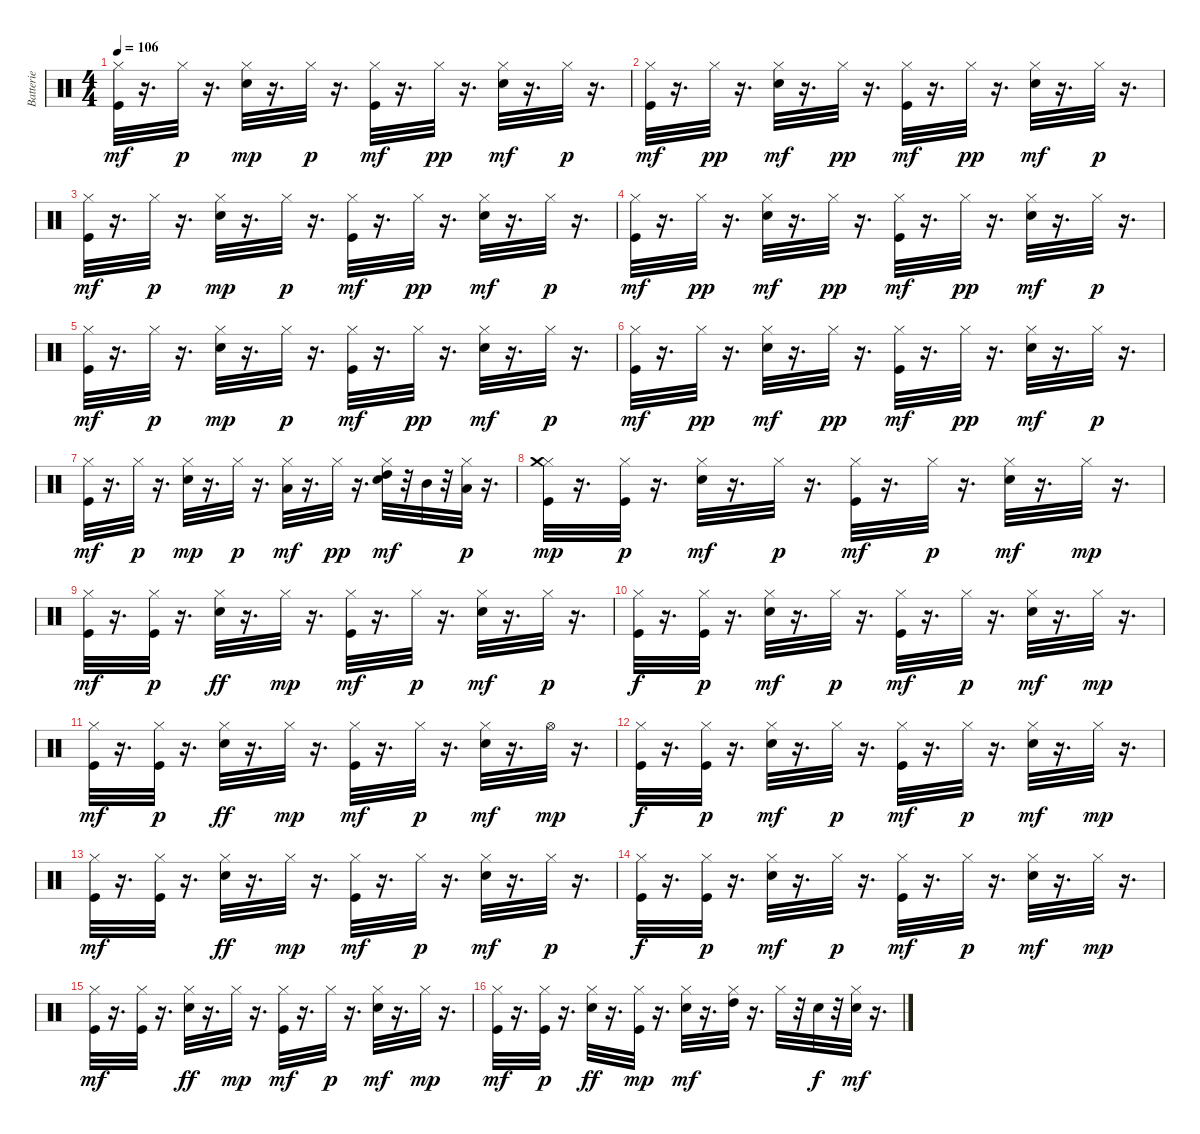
\track ("Batterie" "Batterie") {instrument percussion}
\staff {score}
\articulation defaults
\ts (4 4)
\tempo 106
\clef neutral
\ks c
("Hi-Hat (closed)" "Kick (hit)").32{dy mf} r.16{d} "Hi-Hat (closed)".32{dy p} r.16{d} ("Hi-Hat (closed)" "Electric Snare (hit)").32{dy mp} r.16{d} "Hi-Hat (closed)".32{dy p} r.16{d} ("Hi-Hat (closed)" "Kick (hit)").32{dy mf} r.16{d} "Hi-Hat (closed)".32{dy pp} r.16{d} ("Hi-Hat (closed)" "Electric Snare (hit)").32{dy mf} r.16{d} "Hi-Hat (closed)".32{dy p} r.16{d} |
("Hi-Hat (closed)" "Kick (hit)").32{dy mf} r.16{d} "Hi-Hat (closed)".32{dy pp} r.16{d} ("Hi-Hat (closed)" "Electric Snare (hit)").32{dy mf} r.16{d} "Hi-Hat (closed)".32{dy pp} r.16{d} ("Hi-Hat (closed)" "Kick (hit)").32{dy mf} r.16{d} "Hi-Hat (closed)".32{dy pp} r.16{d} ("Hi-Hat (closed)" "Electric Snare (hit)").32{dy mf} r.16{d} "Hi-Hat (closed)".32{dy p} r.16{d} |
("Hi-Hat (closed)" "Kick (hit)").32{dy mf} r.16{d} "Hi-Hat (closed)".32{dy p} r.16{d} ("Hi-Hat (closed)" "Electric Snare (hit)").32{dy mp} r.16{d} "Hi-Hat (closed)".32{dy p} r.16{d} ("Hi-Hat (closed)" "Kick (hit)").32{dy mf} r.16{d} "Hi-Hat (closed)".32{dy pp} r.16{d} ("Hi-Hat (closed)" "Electric Snare (hit)").32{dy mf} r.16{d} "Hi-Hat (closed)".32{dy p} r.16{d} |
("Hi-Hat (closed)" "Kick (hit)").32{dy mf} r.16{d} "Hi-Hat (closed)".32{dy pp} r.16{d} ("Hi-Hat (closed)" "Electric Snare (hit)").32{dy mf} r.16{d} "Hi-Hat (closed)".32{dy pp} r.16{d} ("Hi-Hat (closed)" "Kick (hit)").32{dy mf} r.16{d} "Hi-Hat (closed)".32{dy pp} r.16{d} ("Hi-Hat (closed)" "Electric Snare (hit)").32{dy mf} r.16{d} "Hi-Hat (closed)".32{dy p} r.16{d} |
("Hi-Hat (closed)" "Kick (hit)").32{dy mf} r.16{d} "Hi-Hat (closed)".32{dy p} r.16{d} ("Hi-Hat (closed)" "Electric Snare (hit)").32{dy mp} r.16{d} "Hi-Hat (closed)".32{dy p} r.16{d} ("Hi-Hat (closed)" "Kick (hit)").32{dy mf} r.16{d} "Hi-Hat (closed)".32{dy pp} r.16{d} ("Hi-Hat (closed)" "Electric Snare (hit)").32{dy mf} r.16{d} "Hi-Hat (closed)".32{dy p} r.16{d} |
("Hi-Hat (closed)" "Kick (hit)").32{dy mf} r.16{d} "Hi-Hat (closed)".32{dy pp} r.16{d} ("Hi-Hat (closed)" "Electric Snare (hit)").32{dy mf} r.16{d} "Hi-Hat (closed)".32{dy pp} r.16{d} ("Hi-Hat (closed)" "Kick (hit)").32{dy mf} r.16{d} "Hi-Hat (closed)".32{dy pp} r.16{d} ("Hi-Hat (closed)" "Electric Snare (hit)").32{dy mf} r.16{d} "Hi-Hat (closed)".32{dy p} r.16{d} |
("Hi-Hat (closed)" "Kick (hit)").32{dy mf} r.16{d} "Hi-Hat (closed)".32{dy p} r.16{d} ("Hi-Hat (closed)" "Electric Snare (hit)").32{dy mp} r.16{d} "Hi-Hat (closed)".32{dy p} r.16{d} ("Hi-Hat (closed)" "Low Tom (hit)").32{dy mf} r.16{d} "Hi-Hat (closed)".32{dy pp} r.16{d} ("Electric Snare (hit)" "High Tom (hit)" "Hi-Hat (closed)").32{dy mf} r.32 "Mid Tom (hit)".32 r.32 ("Low Tom (hit)" "Hi-Hat (closed)").32{dy p} r.16{d} |
("Hi-Hat (closed)" "Crash medium (hit)" "Kick (hit)").32{dy mp} r.16{d} ("Hi-Hat (closed)" "Kick (hit)").32{dy p} r.16{d} ("Hi-Hat (closed)" "Electric Snare (hit)").32{dy mf} r.16{d} "Hi-Hat (closed)".32{dy p} r.16{d} ("Hi-Hat (closed)" "Kick (hit)").32{dy mf} r.16{d} "Hi-Hat (closed)".32{dy p} r.16{d} ("Hi-Hat (closed)" "Electric Snare (hit)").32{dy mf} r.16{d} "Hi-Hat (closed)".32{dy mp} r.16{d} |
("Hi-Hat (closed)" "Kick (hit)").32{dy mf} r.16{d} ("Kick (hit)" "Hi-Hat (closed)").32{dy p} r.16{d} ("Hi-Hat (closed)" "Electric Snare (hit)").32{dy ff} r.16{d} "Hi-Hat (closed)".32{dy mp} r.16{d} ("Hi-Hat (closed)" "Kick (hit)").32{dy mf} r.16{d} "Hi-Hat (closed)".32{dy p} r.16{d} ("Hi-Hat (closed)" "Electric Snare (hit)").32{dy mf} r.16{d} "Hi-Hat (closed)".32{dy p} r.16{d} |
("Hi-Hat (closed)" "Kick (hit)").32{dy f} r.16{d} ("Hi-Hat (closed)" "Kick (hit)").32{dy p} r.16{d} ("Hi-Hat (closed)" "Electric Snare (hit)").32{dy mf} r.16{d} "Hi-Hat (closed)".32{dy p} r.16{d} ("Hi-Hat (closed)" "Kick (hit)").32{dy mf} r.16{d} "Hi-Hat (closed)".32{dy p} r.16{d} ("Hi-Hat (closed)" "Electric Snare (hit)").32{dy mf} r.16{d} "Hi-Hat (closed)".32{dy mp} r.16{d} |
("Hi-Hat (closed)" "Kick (hit)").32{dy mf} r.16{d} ("Kick (hit)" "Hi-Hat (closed)").32{dy p} r.16{d} ("Hi-Hat (closed)" "Electric Snare (hit)").32{dy ff} r.16{d} "Hi-Hat (closed)".32{dy mp} r.16{d} ("Hi-Hat (closed)" "Kick (hit)").32{dy mf} r.16{d} "Hi-Hat (closed)".32{dy p} r.16{d} ("Hi-Hat (closed)" "Electric Snare (hit)").32{dy mf} r.16{d} "Hi-Hat (open)".32{dy mp} r.16{d} |
("Hi-Hat (closed)" "Kick (hit)").32{dy f} r.16{d} ("Hi-Hat (closed)" "Kick (hit)").32{dy p} r.16{d} ("Hi-Hat (closed)" "Electric Snare (hit)").32{dy mf} r.16{d} "Hi-Hat (closed)".32{dy p} r.16{d} ("Hi-Hat (closed)" "Kick (hit)").32{dy mf} r.16{d} "Hi-Hat (closed)".32{dy p} r.16{d} ("Hi-Hat (closed)" "Electric Snare (hit)").32{dy mf} r.16{d} "Hi-Hat (closed)".32{dy mp} r.16{d} |
("Hi-Hat (closed)" "Kick (hit)").32{dy mf} r.16{d} ("Hi-Hat (closed)" "Kick (hit)").32 r.16{d} ("Hi-Hat (closed)" "Electric Snare (hit)").32{dy ff} r.16{d} "Hi-Hat (closed)".32{dy mp} r.16{d} ("Hi-Hat (closed)" "Kick (hit)").32{dy mf} r.16{d} "Hi-Hat (closed)".32{dy p} r.16{d} ("Hi-Hat (closed)" "Electric Snare (hit)").32{dy mf} r.16{d} "Hi-Hat (closed)".32{dy p} r.16{d} |
("Hi-Hat (closed)" "Kick (hit)").32{dy f} r.16{d} ("Hi-Hat (closed)" "Kick (hit)").32{dy p} r.16{d} ("Hi-Hat (closed)" "Electric Snare (hit)").32{dy mf} r.16{d} "Hi-Hat (closed)".32{dy p} r.16{d} ("Hi-Hat (closed)" "Kick (hit)").32{dy mf} r.16{d} "Hi-Hat (closed)".32{dy p} r.16{d} ("Hi-Hat (closed)" "Electric Snare (hit)").32{dy mf} r.16{d} "Hi-Hat (closed)".32{dy mp} r.16{d} |
("Hi-Hat (closed)" "Kick (hit)").32{dy mf} r.16{d} ("Hi-Hat (closed)" "Kick (hit)").32 r.16{d} ("Hi-Hat (closed)" "Electric Snare (hit)").32{dy ff} r.16{d} "Hi-Hat (closed)".32{dy mp} r.16{d} ("Hi-Hat (closed)" "Kick (hit)").32{dy mf} r.16{d} "Hi-Hat (closed)".32{dy p} r.16{d} ("Hi-Hat (closed)" "Electric Snare (hit)").32{dy mf} r.16{d} "Hi-Hat (closed)".32{dy mp} r.16{d} |
("Hi-Hat (closed)" "Kick (hit)").32{dy mf} r.16{d} ("Kick (hit)" "Hi-Hat (closed)").32{dy p} r.16{d} ("Hi-Hat (closed)" "Electric Snare (hit)").32{dy ff} r.16{d} ("Kick (hit)" "Hi-Hat (closed)").32{dy mp} r.16{d} ("Hi-Hat (closed)" "Electric Snare (hit)").32{dy mf} r.16{d} ("Hi-Hat (closed)" "High Tom (hit)").32 r.16{d} "Hi-Hat (closed)".32 r.32 "Electric Snare (hit)".32{dy f} r.32 ("Hi-Hat (closed)" "Electric Snare (hit)").32{dy mf} r.16{d}
